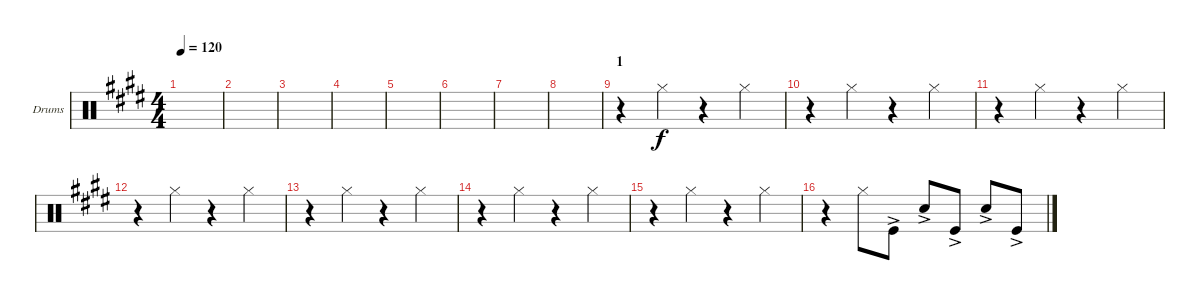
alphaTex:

\defaultSystemsLayout 4
\bracketExtendMode groupsimilarinstruments
\firstSystemTrackNameOrientation horizontal
\otherSystemsTrackNameOrientation horizontal
\track ("Drumkit" "Drums") {instrument percussion}
\staff {score}
\articulation defaults
\ts (4 4)
\tempo 120
\clef neutral
\scale
0.375465
\ks c#minor
|
\scale
0.208178 |
\scale
0.208178 |
\scale
0.208178 |
\scale
0.25 |
\scale
0.25 |
\scale
0.25 |
\scale
0.25 |
\section ("" "1")
\scale
0.25 r.4 "Hi-Hat (closed)".4 r.4 "Hi-Hat (closed)".4 |
\scale
0.25 r.4 "Hi-Hat (closed)".4 r.4 "Hi-Hat (closed)".4 |
\scale
0.25 r.4 "Hi-Hat (closed)".4 r.4 "Hi-Hat (closed)".4 |
\scale
0.25 r.4 "Hi-Hat (closed)".4 r.4 "Hi-Hat (closed)".4 |
\scale
0.25 r.4 "Hi-Hat (closed)".4 r.4 "Hi-Hat (closed)".4 |
\scale
0.25 r.4 "Hi-Hat (closed)".4 r.4 "Hi-Hat (closed)".4 |
\scale
0.25 r.4 "Hi-Hat (closed)".4 r.4 "Hi-Hat (closed)".4 |
\scale
0.25 r.4 "Hi-Hat (closed)".8 "Kick (hit)"{ac}.8 "Snare (hit) 2"{ac}.8 "Kick (hit)"{ac}.8 "Snare (hit) 2"{ac}.8 "Kick (hit)"{ac}.8
